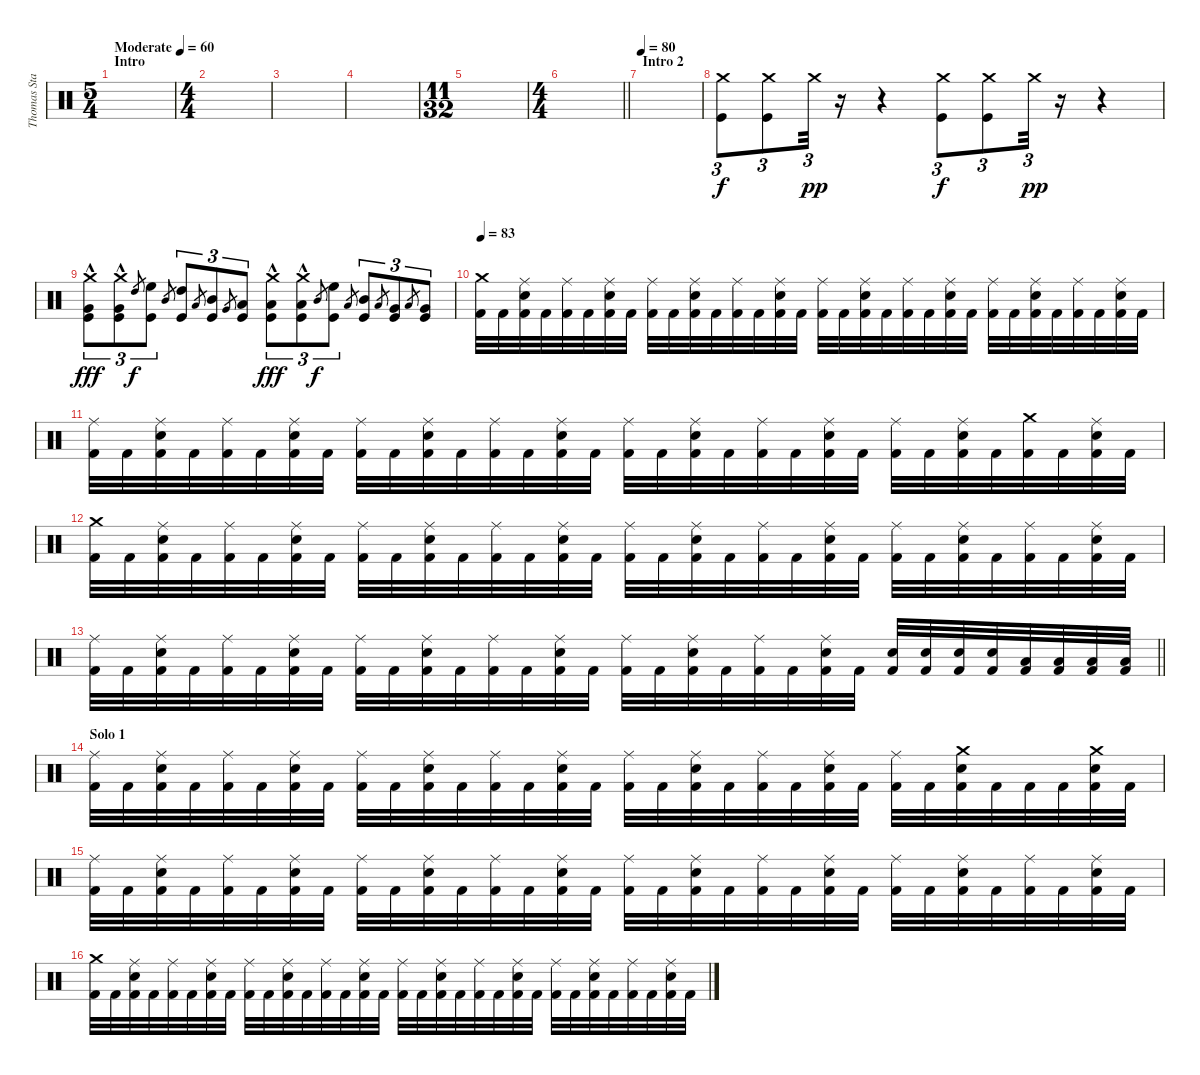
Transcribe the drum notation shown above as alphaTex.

\track ("Thomas Stauch" "Thomas Sta") {instrument percussion}
\staff {score}
\articulation defaults
\ts (5 4)
\section ("" "Intro")
\tempo (60 "Moderate")
\clef neutral
\ks c
|
\ts (4 4)
|
|
|
\ts (11 32)
|
\ts (4 4)
\barLineRight lightlight
|
\section ("" "Intro 2")
\tempo 80
|
("Crash medium (hit)" "Kick (hit)").8{tu (3 2)} ("Crash medium (hit)" "Kick (hit)").8{tu (3 2)} "Crash medium (hit)".32{tu (3 2) dy pp} r.16 r.4 ("Crash medium (hit)" "Kick (hit)").8{tu (3 2) dy f} ("Crash medium (hit)" "Kick (hit)").8{tu (3 2)} "Crash medium (hit)".32{tu (3 2) dy pp} r.16 r.4 |
("Crash medium (hit)" "Kick (hit)" "Very Low Tom (hit)"{hac}).8{tu (3 2) dy fff} ("Crash medium (hit)" "Kick (hit)" "Very Low Tom (hit)"{hac}).8{tu (3 2)} "High Tom (hit)".8{gr dy f} ("High Floor Tom (hit)" "Kick (hit)").8{tu (3 2)} "Mid Tom (hit)".8{gr} ("High Tom (hit)" "Kick (hit)").8{tu (3 2)} "Low Tom (hit)".8{gr} ("Mid Tom (hit)" "Kick (hit)").8{tu (3 2)} "Very Low Tom (hit)".8{gr} ("Low Tom (hit)" "Kick (hit)").8{tu (3 2)} ("Crash medium (hit)" "Kick (hit)" "Low Floor Tom (hit)"{hac}).8{tu (3 2) dy fff} ("Crash medium (hit)" "Kick (hit)" "Low Floor Tom (hit)"{hac}).8{tu (3 2)} "Mid Tom (hit)".8{gr dy f} ("High Floor Tom (hit)" "Kick (hit)").8{tu (3 2)} "Low Tom (hit)".8{gr} ("Mid Tom (hit)" "Kick (hit)").8{tu (3 2)} "Low Tom (hit)".8{gr} ("Very Low Tom (hit)" "Kick (hit)").8{tu (3 2)} "Low Floor Tom (hit)".8{gr} ("Very Low Tom (hit)" "Kick (hit)").8{tu (3 2)} |
\tempo 83
("Crash medium (hit)" "Kick (hit) 2").32 "Kick (hit) 2".32 ("Ride (middle)" "Electric Snare (hit)" "Kick (hit) 2").32 "Kick (hit) 2".32 ("Ride (middle)" "Kick (hit) 2").32 "Kick (hit) 2".32 ("Ride (middle)" "Electric Snare (hit)" "Kick (hit) 2").32 "Kick (hit) 2".32 ("Ride (middle)" "Kick (hit) 2").32 "Kick (hit) 2".32 ("Ride (middle)" "Electric Snare (hit)" "Kick (hit) 2").32 "Kick (hit) 2".32 ("Ride (middle)" "Kick (hit) 2").32 "Kick (hit) 2".32 ("Ride (middle)" "Electric Snare (hit)" "Kick (hit) 2").32 "Kick (hit) 2".32 ("Ride (middle)" "Kick (hit) 2").32 "Kick (hit) 2".32 ("Ride (middle)" "Electric Snare (hit)" "Kick (hit) 2").32 "Kick (hit) 2".32 ("Ride (middle)" "Kick (hit) 2").32 "Kick (hit) 2".32 ("Ride (middle)" "Electric Snare (hit)" "Kick (hit) 2").32 "Kick (hit) 2".32 ("Ride (middle)" "Kick (hit) 2").32 "Kick (hit) 2".32 ("Ride (middle)" "Electric Snare (hit)" "Kick (hit) 2").32 "Kick (hit) 2".32 ("Ride (middle)" "Kick (hit) 2").32 "Kick (hit) 2".32 ("Ride (middle)" "Electric Snare (hit)" "Kick (hit) 2").32 "Kick (hit) 2".32 |
("Ride (middle)" "Kick (hit) 2").32 "Kick (hit) 2".32 ("Ride (middle)" "Electric Snare (hit)" "Kick (hit) 2").32 "Kick (hit) 2".32 ("Ride (middle)" "Kick (hit) 2").32 "Kick (hit) 2".32 ("Ride (middle)" "Electric Snare (hit)" "Kick (hit) 2").32 "Kick (hit) 2".32 ("Ride (middle)" "Kick (hit) 2").32 "Kick (hit) 2".32 ("Ride (middle)" "Electric Snare (hit)" "Kick (hit) 2").32 "Kick (hit) 2".32 ("Ride (middle)" "Kick (hit) 2").32 "Kick (hit) 2".32 ("Ride (middle)" "Electric Snare (hit)" "Kick (hit) 2").32 "Kick (hit) 2".32 ("Ride (middle)" "Kick (hit) 2").32 "Kick (hit) 2".32 ("Ride (middle)" "Electric Snare (hit)" "Kick (hit) 2").32 "Kick (hit) 2".32 ("Ride (middle)" "Kick (hit) 2").32 "Kick (hit) 2".32 ("Ride (middle)" "Electric Snare (hit)" "Kick (hit) 2").32 "Kick (hit) 2".32 ("Ride (middle)" "Kick (hit) 2").32 "Kick (hit) 2".32 ("Ride (middle)" "Electric Snare (hit)" "Kick (hit) 2").32 "Kick (hit) 2".32 ("Crash medium (hit)" "Kick (hit) 2").32 "Kick (hit) 2".32 ("Ride (middle)" "Electric Snare (hit)" "Kick (hit) 2").32 "Kick (hit) 2".32 |
("Crash medium (hit)" "Kick (hit) 2").32 "Kick (hit) 2".32 ("Ride (middle)" "Electric Snare (hit)" "Kick (hit) 2").32 "Kick (hit) 2".32 ("Ride (middle)" "Kick (hit) 2").32 "Kick (hit) 2".32 ("Ride (middle)" "Electric Snare (hit)" "Kick (hit) 2").32 "Kick (hit) 2".32 ("Ride (middle)" "Kick (hit) 2").32 "Kick (hit) 2".32 ("Ride (middle)" "Electric Snare (hit)" "Kick (hit) 2").32 "Kick (hit) 2".32 ("Ride (middle)" "Kick (hit) 2").32 "Kick (hit) 2".32 ("Ride (middle)" "Electric Snare (hit)" "Kick (hit) 2").32 "Kick (hit) 2".32 ("Ride (middle)" "Kick (hit) 2").32 "Kick (hit) 2".32 ("Ride (middle)" "Electric Snare (hit)" "Kick (hit) 2").32 "Kick (hit) 2".32 ("Ride (middle)" "Kick (hit) 2").32 "Kick (hit) 2".32 ("Ride (middle)" "Electric Snare (hit)" "Kick (hit) 2").32 "Kick (hit) 2".32 ("Ride (middle)" "Kick (hit) 2").32 "Kick (hit) 2".32 ("Ride (middle)" "Electric Snare (hit)" "Kick (hit) 2").32 "Kick (hit) 2".32 ("Ride (middle)" "Kick (hit) 2").32 "Kick (hit) 2".32 ("Ride (middle)" "Electric Snare (hit)" "Kick (hit) 2").32 "Kick (hit) 2".32 |
\barLineRight lightlight
("Ride (middle)" "Kick (hit) 2").32 "Kick (hit) 2".32 ("Ride (middle)" "Electric Snare (hit)" "Kick (hit) 2").32 "Kick (hit) 2".32 ("Ride (middle)" "Kick (hit) 2").32 "Kick (hit) 2".32 ("Ride (middle)" "Electric Snare (hit)" "Kick (hit) 2").32 "Kick (hit) 2".32 ("Ride (middle)" "Kick (hit) 2").32 "Kick (hit) 2".32 ("Ride (middle)" "Electric Snare (hit)" "Kick (hit) 2").32 "Kick (hit) 2".32 ("Ride (middle)" "Kick (hit) 2").32 "Kick (hit) 2".32 ("Ride (middle)" "Electric Snare (hit)" "Kick (hit) 2").32 "Kick (hit) 2".32 ("Ride (middle)" "Kick (hit) 2").32 "Kick (hit) 2".32 ("Ride (middle)" "Electric Snare (hit)" "Kick (hit) 2").32 "Kick (hit) 2".32 ("Ride (middle)" "Kick (hit) 2").32 "Kick (hit) 2".32 ("Ride (middle)" "Electric Snare (hit)" "Kick (hit) 2").32 "Kick (hit) 2".32 ("Electric Snare (hit)" "Kick (hit) 2").32 ("Electric Snare (hit)" "Kick (hit) 2").32 ("Electric Snare (hit)" "Kick (hit) 2").32 ("Electric Snare (hit)" "Kick (hit) 2").32 ("Low Tom (hit)" "Kick (hit) 2").32 ("Low Tom (hit)" "Kick (hit) 2").32 ("Low Tom (hit)" "Kick (hit) 2").32 ("Low Tom (hit)" "Kick (hit) 2").32 |
\section ("" "Solo 1")
("Ride (middle)" "Kick (hit) 2").32 "Kick (hit) 2".32 ("Ride (middle)" "Electric Snare (hit)" "Kick (hit) 2").32 "Kick (hit) 2".32 ("Ride (middle)" "Kick (hit) 2").32 "Kick (hit) 2".32 ("Ride (middle)" "Electric Snare (hit)" "Kick (hit) 2").32 "Kick (hit) 2".32 ("Ride (middle)" "Kick (hit) 2").32 "Kick (hit) 2".32 ("Ride (middle)" "Electric Snare (hit)" "Kick (hit) 2").32 "Kick (hit) 2".32 ("Ride (middle)" "Kick (hit) 2").32 "Kick (hit) 2".32 ("Ride (middle)" "Electric Snare (hit)" "Kick (hit) 2").32 "Kick (hit) 2".32 ("Ride (middle)" "Kick (hit) 2").32 "Kick (hit) 2".32 ("Ride (middle)" "Electric Snare (hit)" "Kick (hit) 2").32 "Kick (hit) 2".32 ("Ride (middle)" "Kick (hit) 2").32 "Kick (hit) 2".32 ("Ride (middle)" "Electric Snare (hit)" "Kick (hit) 2").32 "Kick (hit) 2".32 ("Ride (middle)" "Kick (hit) 2").32 "Kick (hit) 2".32 ("Crash medium (hit)" "Electric Snare (hit)" "Kick (hit) 2").32 "Kick (hit) 2".32 "Kick (hit) 2".32 "Kick (hit) 2".32 ("Crash medium (hit)" "Electric Snare (hit)" "Kick (hit) 2").32 "Kick (hit) 2".32 |
("Ride (middle)" "Kick (hit) 2").32 "Kick (hit) 2".32 ("Ride (middle)" "Electric Snare (hit)" "Kick (hit) 2").32 "Kick (hit) 2".32 ("Ride (middle)" "Kick (hit) 2").32 "Kick (hit) 2".32 ("Ride (middle)" "Electric Snare (hit)" "Kick (hit) 2").32 "Kick (hit) 2".32 ("Ride (middle)" "Kick (hit) 2").32 "Kick (hit) 2".32 ("Ride (middle)" "Electric Snare (hit)" "Kick (hit) 2").32 "Kick (hit) 2".32 ("Ride (middle)" "Kick (hit) 2").32 "Kick (hit) 2".32 ("Ride (middle)" "Electric Snare (hit)" "Kick (hit) 2").32 "Kick (hit) 2".32 ("Ride (middle)" "Kick (hit) 2").32 "Kick (hit) 2".32 ("Ride (middle)" "Electric Snare (hit)" "Kick (hit) 2").32 "Kick (hit) 2".32 ("Ride (middle)" "Kick (hit) 2").32 "Kick (hit) 2".32 ("Ride (middle)" "Electric Snare (hit)" "Kick (hit) 2").32 "Kick (hit) 2".32 ("Ride (middle)" "Kick (hit) 2").32 "Kick (hit) 2".32 ("Ride (middle)" "Electric Snare (hit)" "Kick (hit) 2").32 "Kick (hit) 2".32 ("Ride (middle)" "Kick (hit) 2").32 "Kick (hit) 2".32 ("Ride (middle)" "Electric Snare (hit)" "Kick (hit) 2").32 "Kick (hit) 2".32 |
("Crash medium (hit)" "Kick (hit) 2").32 "Kick (hit) 2".32 ("Ride (middle)" "Electric Snare (hit)" "Kick (hit) 2").32 "Kick (hit) 2".32 ("Ride (middle)" "Kick (hit) 2").32 "Kick (hit) 2".32 ("Ride (middle)" "Electric Snare (hit)" "Kick (hit) 2").32 "Kick (hit) 2".32 ("Ride (middle)" "Kick (hit) 2").32 "Kick (hit) 2".32 ("Ride (middle)" "Electric Snare (hit)" "Kick (hit) 2").32 "Kick (hit) 2".32 ("Ride (middle)" "Kick (hit) 2").32 "Kick (hit) 2".32 ("Ride (middle)" "Electric Snare (hit)" "Kick (hit) 2").32 "Kick (hit) 2".32 ("Ride (middle)" "Kick (hit) 2").32 "Kick (hit) 2".32 ("Ride (middle)" "Electric Snare (hit)" "Kick (hit) 2").32 "Kick (hit) 2".32 ("Ride (middle)" "Kick (hit) 2").32 "Kick (hit) 2".32 ("Ride (middle)" "Electric Snare (hit)" "Kick (hit) 2").32 "Kick (hit) 2".32 ("Ride (middle)" "Kick (hit) 2").32 "Kick (hit) 2".32 ("Ride (middle)" "Electric Snare (hit)" "Kick (hit) 2").32 "Kick (hit) 2".32 ("Ride (middle)" "Kick (hit) 2").32 "Kick (hit) 2".32 ("Ride (middle)" "Electric Snare (hit)" "Kick (hit) 2").32 "Kick (hit) 2".32
